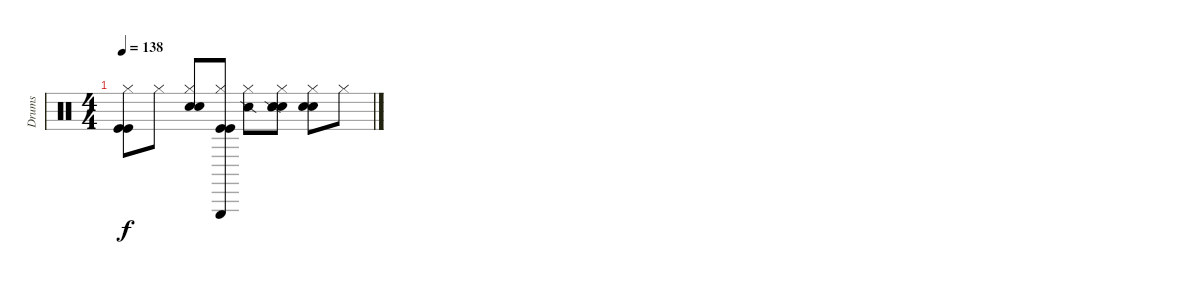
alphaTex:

\track ("Drums" "Drums") {instrument percussion}
\staff {score}
\articulation defaults
\ts (4 4)
\tempo 138
\clef neutral
\ks c
("Hi-Hat (closed)" "Kick (hit)" "Kick (hit)").8{dy f} "Hi-Hat (closed)".8 ("Hi-Hat (closed)" "Snare (hit) 2" "Snare (hit) 2").8 ("Hi-Hat (closed)" "Triangle (hit)" "Kick (hit)" "Kick (hit)").8 ("Hi-Hat (closed)" "Snare (side stick) 2").8 ("Hi-Hat (closed)" "Snare (hit) 2" "Snare (hit) 2" "Snare (side stick) 2").8 ("Hi-Hat (closed)" "Snare (hit) 2" "Snare (hit) 2").8 "Hi-Hat (closed)".8
